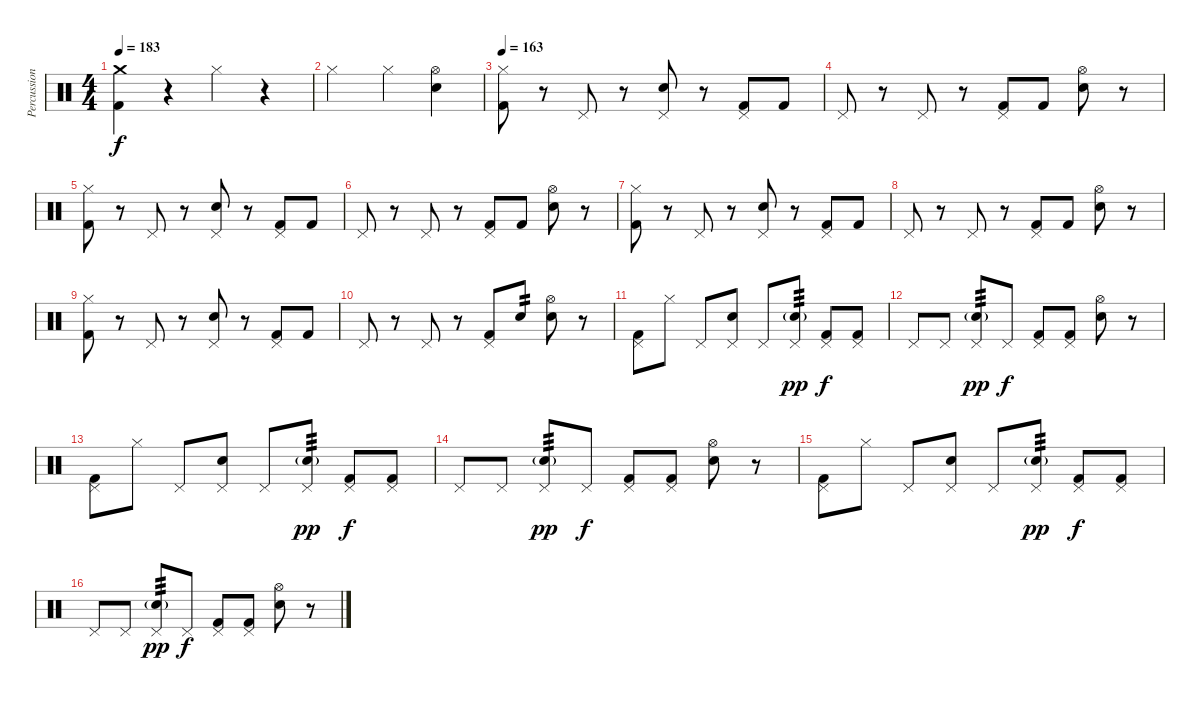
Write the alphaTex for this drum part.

\track ("Percussion" "Percussion") {instrument percussion}
\staff {score}
\articulation defaults
\ts (4 4)
\tempo 183
\clef neutral
\ks c
("Crash medium (hit)" "Kick (hit) 2").4{dy f} r.4 "Hi-Hat (closed)".4 r.4 |
"Hi-Hat (closed)".2 "Hi-Hat (closed)".4 ("Hi-Hat (open)" "Electric Snare (hit)").4 |
\section ("" "")
\tempo 163
("Hi-Hat (closed)" "Kick (hit) 2").8 r.8 "Pedal Hi-Hat (hit)".8 r.8 ("Pedal Hi-Hat (hit)" "Electric Snare (hit)").8 r.8 ("Pedal Hi-Hat (hit)" "Kick (hit) 2").8 "Kick (hit) 2".8 |
"Pedal Hi-Hat (hit)".8 r.8 "Pedal Hi-Hat (hit)".8 r.8 ("Pedal Hi-Hat (hit)" "Kick (hit) 2").8 "Kick (hit) 2".8 ("Hi-Hat (open)" "Electric Snare (hit)").8 r.8 |
("Hi-Hat (closed)" "Kick (hit) 2").8 r.8 "Pedal Hi-Hat (hit)".8 r.8 ("Pedal Hi-Hat (hit)" "Electric Snare (hit)").8 r.8 ("Pedal Hi-Hat (hit)" "Kick (hit) 2").8 "Kick (hit) 2".8 |
"Pedal Hi-Hat (hit)".8 r.8 "Pedal Hi-Hat (hit)".8 r.8 ("Pedal Hi-Hat (hit)" "Kick (hit) 2").8 "Kick (hit) 2".8 ("Hi-Hat (open)" "Electric Snare (hit)").8 r.8 |
("Hi-Hat (closed)" "Kick (hit) 2").8 r.8 "Pedal Hi-Hat (hit)".8 r.8 ("Pedal Hi-Hat (hit)" "Electric Snare (hit)").8 r.8 ("Pedal Hi-Hat (hit)" "Kick (hit) 2").8 "Kick (hit) 2".8 |
"Pedal Hi-Hat (hit)".8 r.8 "Pedal Hi-Hat (hit)".8 r.8 ("Pedal Hi-Hat (hit)" "Kick (hit) 2").8 "Kick (hit) 2".8 ("Hi-Hat (open)" "Electric Snare (hit)").8 r.8 |
("Hi-Hat (closed)" "Kick (hit) 2").8 r.8 "Pedal Hi-Hat (hit)".8 r.8 ("Pedal Hi-Hat (hit)" "Electric Snare (hit)").8 r.8 ("Pedal Hi-Hat (hit)" "Kick (hit) 2").8 "Kick (hit) 2".8 |
"Pedal Hi-Hat (hit)".8 r.8 "Pedal Hi-Hat (hit)".8 r.8 ("Pedal Hi-Hat (hit)" "Kick (hit) 2").8 "Electric Snare (hit)".8{tp 2} ("Hi-Hat (open)" "Electric Snare (hit)").8 r.8 |
\section ("" "")
("Pedal Hi-Hat (hit)" "Kick (hit) 2").8 "Hi-Hat (closed)".8 "Pedal Hi-Hat (hit)".8 ("Pedal Hi-Hat (hit)" "Electric Snare (hit)").8 "Pedal Hi-Hat (hit)".8 ("Pedal Hi-Hat (hit)" "Electric Snare (hit)"{g}).8{tp 3 dy pp} ("Pedal Hi-Hat (hit)" "Kick (hit) 2").8{dy f} ("Pedal Hi-Hat (hit)" "Kick (hit) 2").8 |
"Pedal Hi-Hat (hit)".8 "Pedal Hi-Hat (hit)".8 ("Pedal Hi-Hat (hit)" "Electric Snare (hit)"{g}).8{tp 3 dy pp} "Pedal Hi-Hat (hit)".8{dy f} ("Pedal Hi-Hat (hit)" "Kick (hit) 2").8 ("Pedal Hi-Hat (hit)" "Kick (hit) 2").8 ("Hi-Hat (open)" "Electric Snare (hit)").8 r.8 |
("Pedal Hi-Hat (hit)" "Kick (hit) 2").8 "Hi-Hat (closed)".8 "Pedal Hi-Hat (hit)".8 ("Pedal Hi-Hat (hit)" "Electric Snare (hit)").8 "Pedal Hi-Hat (hit)".8 ("Pedal Hi-Hat (hit)" "Electric Snare (hit)"{g}).8{tp 3 dy pp} ("Pedal Hi-Hat (hit)" "Kick (hit) 2").8{dy f} ("Pedal Hi-Hat (hit)" "Kick (hit) 2").8 |
"Pedal Hi-Hat (hit)".8 "Pedal Hi-Hat (hit)".8 ("Pedal Hi-Hat (hit)" "Electric Snare (hit)"{g}).8{tp 3 dy pp} "Pedal Hi-Hat (hit)".8{dy f} ("Pedal Hi-Hat (hit)" "Kick (hit) 2").8 ("Pedal Hi-Hat (hit)" "Kick (hit) 2").8 ("Hi-Hat (open)" "Electric Snare (hit)").8 r.8 |
("Pedal Hi-Hat (hit)" "Kick (hit) 2").8 "Hi-Hat (closed)".8 "Pedal Hi-Hat (hit)".8 ("Pedal Hi-Hat (hit)" "Electric Snare (hit)").8 "Pedal Hi-Hat (hit)".8 ("Pedal Hi-Hat (hit)" "Electric Snare (hit)"{g}).8{tp 3 dy pp} ("Pedal Hi-Hat (hit)" "Kick (hit) 2").8{dy f} ("Pedal Hi-Hat (hit)" "Kick (hit) 2").8 |
"Pedal Hi-Hat (hit)".8 "Pedal Hi-Hat (hit)".8 ("Pedal Hi-Hat (hit)" "Electric Snare (hit)"{g}).8{tp 3 dy pp} "Pedal Hi-Hat (hit)".8{dy f} ("Pedal Hi-Hat (hit)" "Kick (hit) 2").8 ("Pedal Hi-Hat (hit)" "Kick (hit) 2").8 ("Hi-Hat (open)" "Electric Snare (hit)").8 r.8
